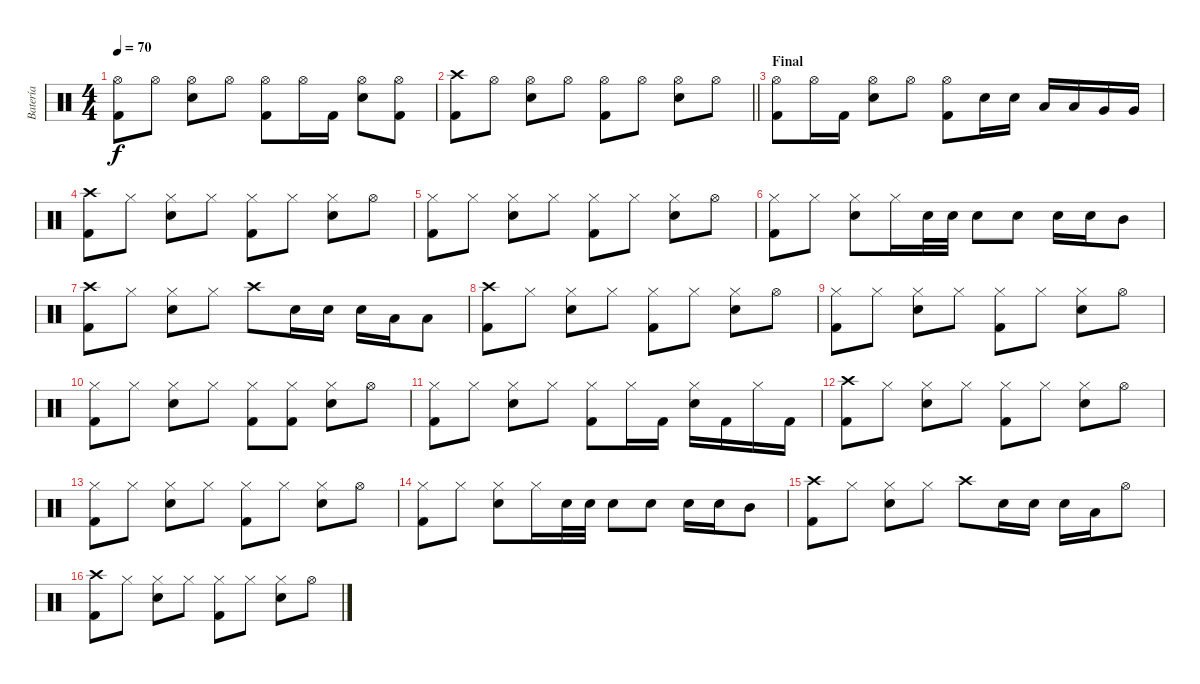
\track ("Batería" "Batería") {instrument percussion}
\staff {score}
\articulation defaults
\ts (4 4)
\tempo 70
\clef neutral
\ks c
("Hi-Hat (open)" "Kick (hit) 2").8{dy f} "Hi-Hat (open)".8 ("Snare (hit) 2" "Hi-Hat (open)").8 "Hi-Hat (open)".8 ("Hi-Hat (open)" "Kick (hit) 2").8 "Hi-Hat (open)".16 "Kick (hit) 2".16 ("Snare (hit) 2" "Hi-Hat (open)").8 ("Kick (hit) 2" "Hi-Hat (open)").8 |
\barLineRight lightlight
("Crash high (hit)" "Kick (hit) 2").8 "Hi-Hat (open)".8 ("Snare (hit) 2" "Hi-Hat (open)").8 "Hi-Hat (open)".8 ("Hi-Hat (open)" "Kick (hit) 2").8 "Hi-Hat (open)".8 ("Hi-Hat (open)" "Snare (hit) 2").8 "Hi-Hat (open)".8 |
\section ("" "Final")
("Hi-Hat (open)" "Kick (hit) 2").8 "Hi-Hat (open)".16 "Kick (hit) 2".16 ("Snare (hit) 2" "Hi-Hat (open)").8 "Hi-Hat (open)".8 ("Hi-Hat (open)" "Kick (hit) 2").8 "Snare (hit) 2".16 "Snare (hit) 2".16 "Low Tom (hit)".16 "Low Tom (hit)".16 "Very Low Tom (hit)".16 "Very Low Tom (hit)".16 |
("Crash high (hit)" "Kick (hit) 2").8 "Hi-Hat (closed)".8 ("Snare (hit) 2" "Hi-Hat (closed)").8 "Hi-Hat (closed)".8 ("Hi-Hat (closed)" "Kick (hit) 2").8 "Hi-Hat (closed)".8 ("Hi-Hat (closed)" "Snare (hit) 2").8 "Hi-Hat (open)".8 |
("Hi-Hat (closed)" "Kick (hit) 2").8 "Hi-Hat (closed)".8 ("Snare (hit) 2" "Hi-Hat (closed)").8 "Hi-Hat (closed)".8 ("Hi-Hat (closed)" "Kick (hit) 2").8 "Hi-Hat (closed)".8 ("Hi-Hat (closed)" "Snare (hit) 2").8 "Hi-Hat (open)".8 |
("Hi-Hat (closed)" "Kick (hit) 2").8 "Hi-Hat (closed)".8 ("Snare (hit) 2" "Hi-Hat (closed)").8 "Hi-Hat (closed)".16 "Snare (hit) 2".32 "Snare (hit) 2".32 "Snare (hit) 2".8 "Snare (hit) 2".8 "Snare (hit) 2".16 "Snare (hit) 2".16 "Mid Tom (hit)".8 |
("Kick (hit) 2" "Crash high (hit)").8 "Hi-Hat (closed)".8 ("Snare (hit) 2" "Hi-Hat (closed)").8 "Hi-Hat (closed)".8 "Crash high (hit)".8 "Snare (hit) 2".16 "Snare (hit) 2".16 "Snare (hit) 2".16 "Low Tom (hit)".16 "Low Tom (hit)".8 |
("Crash high (hit)" "Kick (hit) 2").8 "Hi-Hat (closed)".8 ("Snare (hit) 2" "Hi-Hat (closed)").8 "Hi-Hat (closed)".8 ("Hi-Hat (closed)" "Kick (hit) 2").8 "Hi-Hat (closed)".8 ("Hi-Hat (closed)" "Snare (hit) 2").8 "Hi-Hat (open)".8 |
("Hi-Hat (closed)" "Kick (hit) 2").8 "Hi-Hat (closed)".8 ("Snare (hit) 2" "Hi-Hat (closed)").8 "Hi-Hat (closed)".8 ("Hi-Hat (closed)" "Kick (hit) 2").8 "Hi-Hat (closed)".8 ("Hi-Hat (closed)" "Snare (hit) 2").8 "Hi-Hat (open)".8 |
("Hi-Hat (closed)" "Kick (hit) 2").8 "Hi-Hat (closed)".8 ("Snare (hit) 2" "Hi-Hat (closed)").8 "Hi-Hat (closed)".8 ("Hi-Hat (closed)" "Kick (hit) 2").8 ("Hi-Hat (closed)" "Kick (hit) 2").8 ("Hi-Hat (closed)" "Snare (hit) 2").8 "Hi-Hat (open)".8 |
("Hi-Hat (closed)" "Kick (hit) 2").8 "Hi-Hat (closed)".8 ("Snare (hit) 2" "Hi-Hat (closed)").8 "Hi-Hat (closed)".8 ("Hi-Hat (closed)" "Kick (hit) 2").8 "Hi-Hat (closed)".16 "Kick (hit) 2".16 ("Hi-Hat (closed)" "Snare (hit) 2").16 "Kick (hit) 2".16 "Hi-Hat (closed)".16 "Kick (hit) 2".16 |
("Crash high (hit)" "Kick (hit) 2").8 "Hi-Hat (closed)".8 ("Snare (hit) 2" "Hi-Hat (closed)").8 "Hi-Hat (closed)".8 ("Hi-Hat (closed)" "Kick (hit) 2").8 "Hi-Hat (closed)".8 ("Hi-Hat (closed)" "Snare (hit) 2").8 "Hi-Hat (open)".8 |
("Hi-Hat (closed)" "Kick (hit) 2").8 "Hi-Hat (closed)".8 ("Snare (hit) 2" "Hi-Hat (closed)").8 "Hi-Hat (closed)".8 ("Hi-Hat (closed)" "Kick (hit) 2").8 "Hi-Hat (closed)".8 ("Hi-Hat (closed)" "Snare (hit) 2").8 "Hi-Hat (open)".8 |
("Hi-Hat (closed)" "Kick (hit) 2").8 "Hi-Hat (closed)".8 ("Snare (hit) 2" "Hi-Hat (closed)").8 "Hi-Hat (closed)".16 "Snare (hit) 2".32 "Snare (hit) 2".32 "Snare (hit) 2".8 "Snare (hit) 2".8 "Snare (hit) 2".16 "Snare (hit) 2".16 "Mid Tom (hit)".8 |
("Kick (hit) 2" "Crash high (hit)").8 "Hi-Hat (closed)".8 ("Snare (hit) 2" "Hi-Hat (closed)").8 "Hi-Hat (closed)".8 "Crash high (hit)".8 "Snare (hit) 2".16 "Snare (hit) 2".16 "Snare (hit) 2".16 "Low Tom (hit)".16 "Hi-Hat (open)".8 |
("Crash high (hit)" "Kick (hit) 2").8 "Hi-Hat (closed)".8 ("Snare (hit) 2" "Hi-Hat (closed)").8 "Hi-Hat (closed)".8 ("Hi-Hat (closed)" "Kick (hit) 2").8 "Hi-Hat (closed)".8 ("Hi-Hat (closed)" "Snare (hit) 2").8 "Hi-Hat (open)".8
